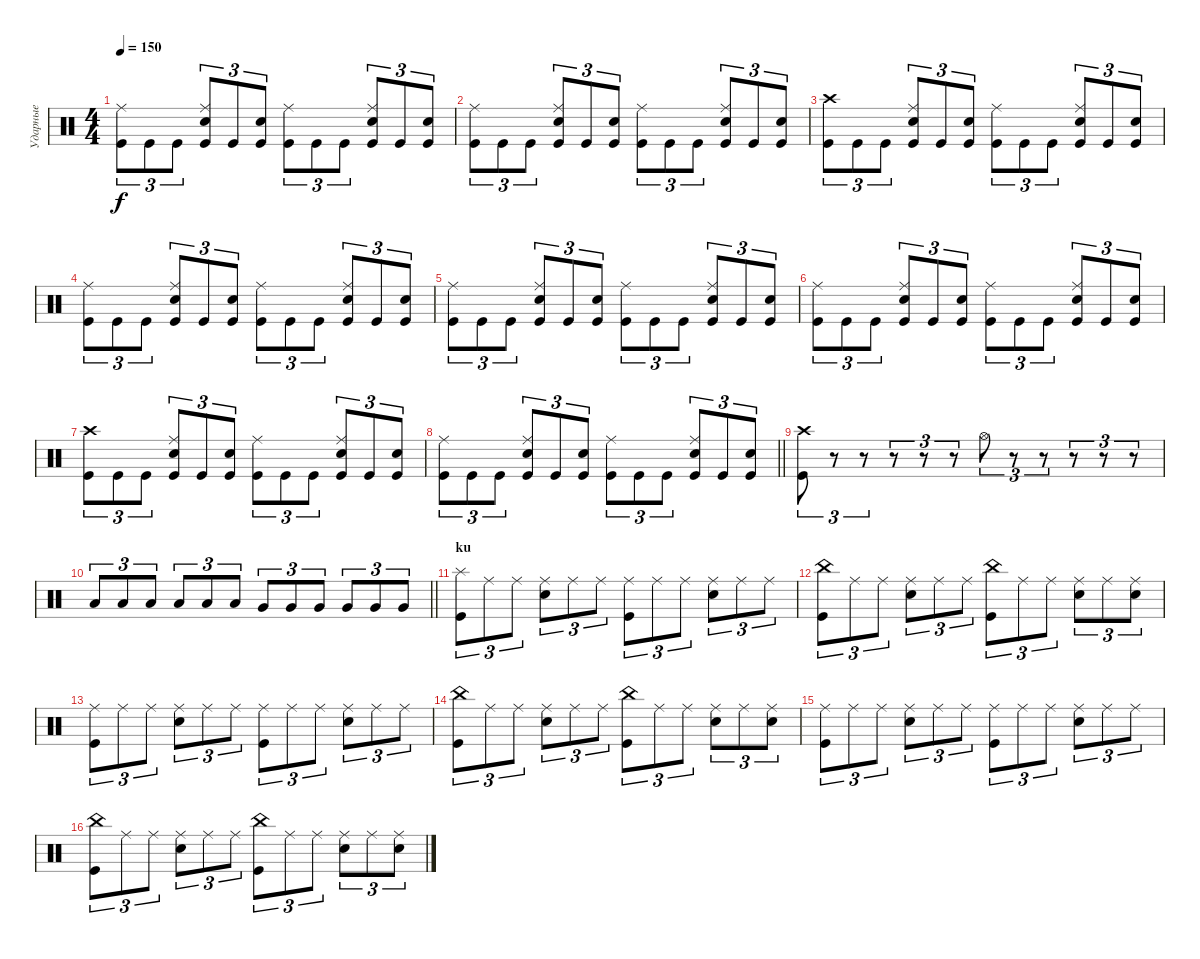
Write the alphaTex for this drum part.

\track ("Ударные" "Ударные") {instrument percussion}
\staff {score}
\articulation defaults
\ts (4 4)
\tempo 150
\clef neutral
\ks c
("Kick (hit)" "Ride (middle)").8{tu (3 2) dy f} "Kick (hit)".8{tu (3 2)} "Kick (hit)".8{tu (3 2)} ("Kick (hit)" "Electric Snare (hit)" "Ride (middle)").8{tu (3 2)} "Kick (hit)".8{tu (3 2)} ("Kick (hit)" "Electric Snare (hit)").8{tu (3 2)} ("Kick (hit)" "Ride (middle)").8{tu (3 2)} "Kick (hit)".8{tu (3 2)} "Kick (hit)".8{tu (3 2)} ("Kick (hit)" "Electric Snare (hit)" "Ride (middle)").8{tu (3 2)} "Kick (hit)".8{tu (3 2)} ("Kick (hit)" "Electric Snare (hit)").8{tu (3 2)} |
("Kick (hit)" "Ride (middle)").8{tu (3 2)} "Kick (hit)".8{tu (3 2)} "Kick (hit)".8{tu (3 2)} ("Kick (hit)" "Electric Snare (hit)" "Ride (middle)").8{tu (3 2)} "Kick (hit)".8{tu (3 2)} ("Kick (hit)" "Electric Snare (hit)").8{tu (3 2)} ("Kick (hit)" "Ride (middle)").8{tu (3 2)} "Kick (hit)".8{tu (3 2)} "Kick (hit)".8{tu (3 2)} ("Kick (hit)" "Electric Snare (hit)" "Ride (middle)").8{tu (3 2)} "Kick (hit)".8{tu (3 2)} ("Kick (hit)" "Electric Snare (hit)").8{tu (3 2)} |
("Kick (hit)" "Crash high (hit)").8{tu (3 2)} "Kick (hit)".8{tu (3 2)} "Kick (hit)".8{tu (3 2)} ("Kick (hit)" "Electric Snare (hit)" "Ride (middle)").8{tu (3 2)} "Kick (hit)".8{tu (3 2)} ("Kick (hit)" "Electric Snare (hit)").8{tu (3 2)} ("Kick (hit)" "Ride (middle)").8{tu (3 2)} "Kick (hit)".8{tu (3 2)} "Kick (hit)".8{tu (3 2)} ("Kick (hit)" "Electric Snare (hit)" "Ride (middle)").8{tu (3 2)} "Kick (hit)".8{tu (3 2)} ("Kick (hit)" "Electric Snare (hit)").8{tu (3 2)} |
("Kick (hit)" "Ride (middle)").8{tu (3 2)} "Kick (hit)".8{tu (3 2)} "Kick (hit)".8{tu (3 2)} ("Kick (hit)" "Electric Snare (hit)" "Ride (middle)").8{tu (3 2)} "Kick (hit)".8{tu (3 2)} ("Kick (hit)" "Electric Snare (hit)").8{tu (3 2)} ("Kick (hit)" "Ride (middle)").8{tu (3 2)} "Kick (hit)".8{tu (3 2)} "Kick (hit)".8{tu (3 2)} ("Kick (hit)" "Electric Snare (hit)" "Ride (middle)").8{tu (3 2)} "Kick (hit)".8{tu (3 2)} ("Kick (hit)" "Electric Snare (hit)").8{tu (3 2)} |
("Kick (hit)" "Ride (middle)").8{tu (3 2)} "Kick (hit)".8{tu (3 2)} "Kick (hit)".8{tu (3 2)} ("Kick (hit)" "Electric Snare (hit)" "Ride (middle)").8{tu (3 2)} "Kick (hit)".8{tu (3 2)} ("Kick (hit)" "Electric Snare (hit)").8{tu (3 2)} ("Kick (hit)" "Ride (middle)").8{tu (3 2)} "Kick (hit)".8{tu (3 2)} "Kick (hit)".8{tu (3 2)} ("Kick (hit)" "Electric Snare (hit)" "Ride (middle)").8{tu (3 2)} "Kick (hit)".8{tu (3 2)} ("Kick (hit)" "Electric Snare (hit)").8{tu (3 2)} |
("Kick (hit)" "Ride (middle)").8{tu (3 2)} "Kick (hit)".8{tu (3 2)} "Kick (hit)".8{tu (3 2)} ("Kick (hit)" "Electric Snare (hit)" "Ride (middle)").8{tu (3 2)} "Kick (hit)".8{tu (3 2)} ("Kick (hit)" "Electric Snare (hit)").8{tu (3 2)} ("Kick (hit)" "Ride (middle)").8{tu (3 2)} "Kick (hit)".8{tu (3 2)} "Kick (hit)".8{tu (3 2)} ("Kick (hit)" "Electric Snare (hit)" "Ride (middle)").8{tu (3 2)} "Kick (hit)".8{tu (3 2)} ("Kick (hit)" "Electric Snare (hit)").8{tu (3 2)} |
("Kick (hit)" "Crash high (hit)").8{tu (3 2)} "Kick (hit)".8{tu (3 2)} "Kick (hit)".8{tu (3 2)} ("Kick (hit)" "Electric Snare (hit)" "Ride (middle)").8{tu (3 2)} "Kick (hit)".8{tu (3 2)} ("Kick (hit)" "Electric Snare (hit)").8{tu (3 2)} ("Kick (hit)" "Ride (middle)").8{tu (3 2)} "Kick (hit)".8{tu (3 2)} "Kick (hit)".8{tu (3 2)} ("Kick (hit)" "Electric Snare (hit)" "Ride (middle)").8{tu (3 2)} "Kick (hit)".8{tu (3 2)} ("Kick (hit)" "Electric Snare (hit)").8{tu (3 2)} |
\barLineRight lightlight
("Kick (hit)" "Ride (middle)").8{tu (3 2)} "Kick (hit)".8{tu (3 2)} "Kick (hit)".8{tu (3 2)} ("Kick (hit)" "Electric Snare (hit)" "Ride (middle)").8{tu (3 2)} "Kick (hit)".8{tu (3 2)} ("Kick (hit)" "Electric Snare (hit)").8{tu (3 2)} ("Kick (hit)" "Ride (middle)").8{tu (3 2)} "Kick (hit)".8{tu (3 2)} "Kick (hit)".8{tu (3 2)} ("Kick (hit)" "Electric Snare (hit)" "Ride (middle)").8{tu (3 2)} "Kick (hit)".8{tu (3 2)} ("Kick (hit)" "Electric Snare (hit)").8{tu (3 2)} |
("Crash high (hit)" "Kick (hit)").8{tu (3 2)} r.8{tu (3 2)} r.8{tu (3 2)} r.8{tu (3 2)} r.8{tu (3 2)} r.8{tu (3 2)} "Hi-Hat (open)".8{tu (3 2)} r.8{tu (3 2)} r.8{tu (3 2)} r.8{tu (3 2)} r.8{tu (3 2)} r.8{tu (3 2)} |
\barLineRight lightlight "Low Tom (hit)".8{tu (3 2)} "Low Tom (hit)".8{tu (3 2)} "Low Tom (hit)".8{tu (3 2)} "Low Tom (hit)".8{tu (3 2)} "Low Tom (hit)".8{tu (3 2)} "Low Tom (hit)".8{tu (3 2)} "Very Low Tom (hit)".8{tu (3 2)} "Very Low Tom (hit)".8{tu (3 2)} "Very Low Tom (hit)".8{tu (3 2)} "Very Low Tom (hit)".8{tu (3 2)} "Very Low Tom (hit)".8{tu (3 2)} "Very Low Tom (hit)".8{tu (3 2)}
|
\section ("" "ku")
("Splash (hit)" "Kick (hit)").8{tu (3 2)} "Ride (middle)".8{tu (3 2)} "Ride (middle)".8{tu (3 2)} ("Ride (middle)" "Electric Snare (hit)").8{tu (3 2)} "Ride (middle)".8{tu (3 2)} "Ride (middle)".8{tu (3 2)} ("Ride (middle)" "Kick (hit)").8{tu (3 2)} "Ride (middle)".8{tu (3 2)} "Ride (middle)".8{tu (3 2)} ("Ride (middle)" "Electric Snare (hit)").8{tu (3 2)} "Ride (middle)".8{tu (3 2)} "Ride (middle)".8{tu (3 2)} |
("China (hit)" "Kick (hit)").8{tu (3 2)} "Ride (middle)".8{tu (3 2)} "Ride (middle)".8{tu (3 2)} ("Ride (middle)" "Electric Snare (hit)").8{tu (3 2)} "Ride (middle)".8{tu (3 2)} "Ride (middle)".8{tu (3 2)} ("China (hit)" "Kick (hit)").8{tu (3 2)} "Ride (middle)".8{tu (3 2)} "Ride (middle)".8{tu (3 2)} ("Ride (middle)" "Electric Snare (hit)").8{tu (3 2)} "Ride (middle)".8{tu (3 2)} ("Ride (middle)" "Electric Snare (hit)").8{tu (3 2)} |
("Ride (middle)" "Kick (hit)").8{tu (3 2)} "Ride (middle)".8{tu (3 2)} "Ride (middle)".8{tu (3 2)} ("Ride (middle)" "Electric Snare (hit)").8{tu (3 2)} "Ride (middle)".8{tu (3 2)} "Ride (middle)".8{tu (3 2)} ("Ride (middle)" "Kick (hit)").8{tu (3 2)} "Ride (middle)".8{tu (3 2)} "Ride (middle)".8{tu (3 2)} ("Ride (middle)" "Electric Snare (hit)").8{tu (3 2)} "Ride (middle)".8{tu (3 2)} "Ride (middle)".8{tu (3 2)} |
("China (hit)" "Kick (hit)").8{tu (3 2)} "Ride (middle)".8{tu (3 2)} "Ride (middle)".8{tu (3 2)} ("Ride (middle)" "Electric Snare (hit)").8{tu (3 2)} "Ride (middle)".8{tu (3 2)} "Ride (middle)".8{tu (3 2)} ("China (hit)" "Kick (hit)").8{tu (3 2)} "Ride (middle)".8{tu (3 2)} "Ride (middle)".8{tu (3 2)} ("Ride (middle)" "Electric Snare (hit)").8{tu (3 2)} "Ride (middle)".8{tu (3 2)} ("Ride (middle)" "Electric Snare (hit)").8{tu (3 2)} |
("Ride (middle)" "Kick (hit)").8{tu (3 2)} "Ride (middle)".8{tu (3 2)} "Ride (middle)".8{tu (3 2)} ("Ride (middle)" "Electric Snare (hit)").8{tu (3 2)} "Ride (middle)".8{tu (3 2)} "Ride (middle)".8{tu (3 2)} ("Ride (middle)" "Kick (hit)").8{tu (3 2)} "Ride (middle)".8{tu (3 2)} "Ride (middle)".8{tu (3 2)} ("Ride (middle)" "Electric Snare (hit)").8{tu (3 2)} "Ride (middle)".8{tu (3 2)} "Ride (middle)".8{tu (3 2)} |
("China (hit)" "Kick (hit)").8{tu (3 2)} "Ride (middle)".8{tu (3 2)} "Ride (middle)".8{tu (3 2)} ("Ride (middle)" "Electric Snare (hit)").8{tu (3 2)} "Ride (middle)".8{tu (3 2)} "Ride (middle)".8{tu (3 2)} ("China (hit)" "Kick (hit)").8{tu (3 2)} "Ride (middle)".8{tu (3 2)} "Ride (middle)".8{tu (3 2)} ("Ride (middle)" "Electric Snare (hit)").8{tu (3 2)} "Ride (middle)".8{tu (3 2)} ("Ride (middle)" "Electric Snare (hit)").8{tu (3 2)}
